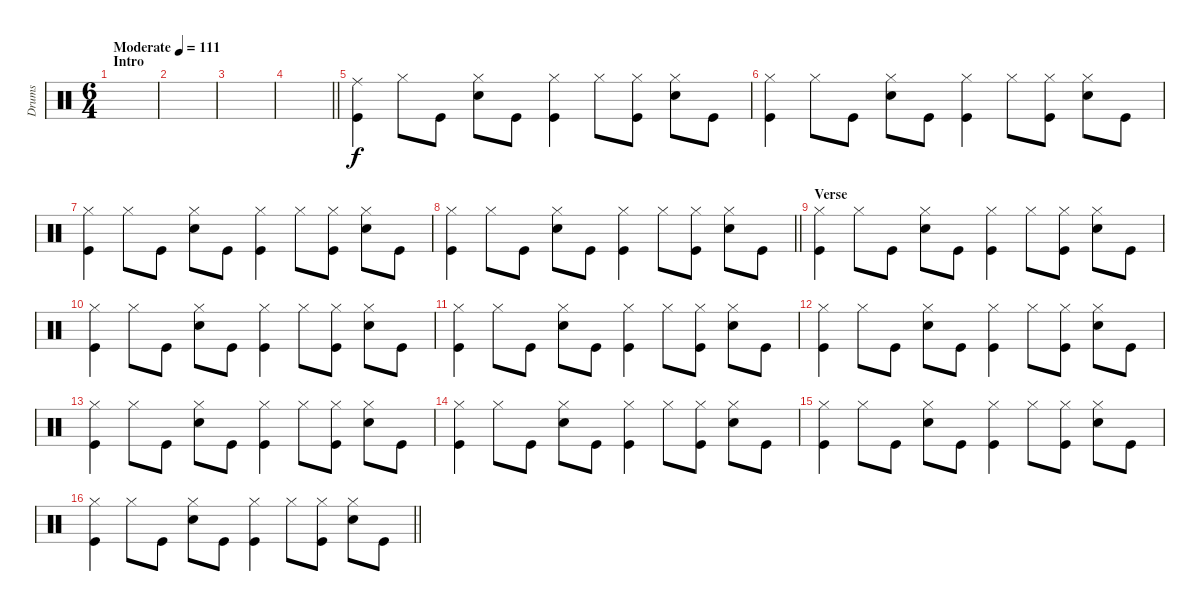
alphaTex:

\track ("Drums" "Drums") {instrument percussion}
\staff {score}
\articulation defaults
\ts (6 4)
\section ("" "Intro")
\tempo (111 "Moderate")
\clef neutral
\ks c
|
|
|
\barLineRight lightlight
|
("Ride (middle)" "Kick (hit)").4 "Hi-Hat (closed)".8 "Kick (hit)".8 ("Hi-Hat (closed)" "Snare (hit) 2").8 "Kick (hit)".8 ("Hi-Hat (closed)" "Kick (hit)").4 "Hi-Hat (closed)".8 ("Hi-Hat (closed)" "Kick (hit)").8 ("Hi-Hat (closed)" "Electric Snare (hit)").8 "Kick (hit)".8 |
("Hi-Hat (closed)" "Kick (hit)").4 "Hi-Hat (closed)".8 "Kick (hit)".8 ("Hi-Hat (closed)" "Snare (hit) 2").8 "Kick (hit)".8 ("Hi-Hat (closed)" "Kick (hit)").4 "Hi-Hat (closed)".8 ("Hi-Hat (closed)" "Kick (hit)").8 ("Hi-Hat (closed)" "Electric Snare (hit)").8 "Kick (hit)".8 |
("Hi-Hat (closed)" "Kick (hit)").4 "Hi-Hat (closed)".8 "Kick (hit)".8 ("Hi-Hat (closed)" "Snare (hit) 2").8 "Kick (hit)".8 ("Hi-Hat (closed)" "Kick (hit)").4 "Hi-Hat (closed)".8 ("Hi-Hat (closed)" "Kick (hit)").8 ("Hi-Hat (closed)" "Electric Snare (hit)").8 "Kick (hit)".8 |
\barLineRight lightlight
("Hi-Hat (closed)" "Kick (hit)").4 "Hi-Hat (closed)".8 "Kick (hit)".8 ("Hi-Hat (closed)" "Snare (hit) 2").8 "Kick (hit)".8 ("Hi-Hat (closed)" "Kick (hit)").4 "Hi-Hat (closed)".8 ("Hi-Hat (closed)" "Kick (hit)").8 ("Hi-Hat (closed)" "Electric Snare (hit)").8 "Kick (hit)".8 |
\section ("" "Verse")
("Hi-Hat (closed)" "Kick (hit)").4 "Hi-Hat (closed)".8 "Kick (hit)".8 ("Hi-Hat (closed)" "Snare (hit) 2").8 "Kick (hit)".8 ("Hi-Hat (closed)" "Kick (hit)").4 "Hi-Hat (closed)".8 ("Hi-Hat (closed)" "Kick (hit)").8 ("Hi-Hat (closed)" "Electric Snare (hit)").8 "Kick (hit)".8 |
("Hi-Hat (closed)" "Kick (hit)").4 "Hi-Hat (closed)".8 "Kick (hit)".8 ("Hi-Hat (closed)" "Snare (hit) 2").8 "Kick (hit)".8 ("Hi-Hat (closed)" "Kick (hit)").4 "Hi-Hat (closed)".8 ("Hi-Hat (closed)" "Kick (hit)").8 ("Hi-Hat (closed)" "Electric Snare (hit)").8 "Kick (hit)".8 |
("Hi-Hat (closed)" "Kick (hit)").4 "Hi-Hat (closed)".8 "Kick (hit)".8 ("Hi-Hat (closed)" "Snare (hit) 2").8 "Kick (hit)".8 ("Hi-Hat (closed)" "Kick (hit)").4 "Hi-Hat (closed)".8 ("Hi-Hat (closed)" "Kick (hit)").8 ("Hi-Hat (closed)" "Electric Snare (hit)").8 "Kick (hit)".8 |
("Hi-Hat (closed)" "Kick (hit)").4 "Hi-Hat (closed)".8 "Kick (hit)".8 ("Hi-Hat (closed)" "Snare (hit) 2").8 "Kick (hit)".8 ("Hi-Hat (closed)" "Kick (hit)").4 "Hi-Hat (closed)".8 ("Hi-Hat (closed)" "Kick (hit)").8 ("Hi-Hat (closed)" "Electric Snare (hit)").8 "Kick (hit)".8 |
("Hi-Hat (closed)" "Kick (hit)").4 "Hi-Hat (closed)".8 "Kick (hit)".8 ("Hi-Hat (closed)" "Snare (hit) 2").8 "Kick (hit)".8 ("Hi-Hat (closed)" "Kick (hit)").4 "Hi-Hat (closed)".8 ("Hi-Hat (closed)" "Kick (hit)").8 ("Hi-Hat (closed)" "Electric Snare (hit)").8 "Kick (hit)".8 |
("Hi-Hat (closed)" "Kick (hit)").4 "Hi-Hat (closed)".8 "Kick (hit)".8 ("Hi-Hat (closed)" "Snare (hit) 2").8 "Kick (hit)".8 ("Hi-Hat (closed)" "Kick (hit)").4 "Hi-Hat (closed)".8 ("Hi-Hat (closed)" "Kick (hit)").8 ("Hi-Hat (closed)" "Electric Snare (hit)").8 "Kick (hit)".8 |
("Hi-Hat (closed)" "Kick (hit)").4 "Hi-Hat (closed)".8 "Kick (hit)".8 ("Hi-Hat (closed)" "Snare (hit) 2").8 "Kick (hit)".8 ("Hi-Hat (closed)" "Kick (hit)").4 "Hi-Hat (closed)".8 ("Hi-Hat (closed)" "Kick (hit)").8 ("Hi-Hat (closed)" "Electric Snare (hit)").8 "Kick (hit)".8 |
\barLineRight lightlight
("Hi-Hat (closed)" "Kick (hit)").4 "Hi-Hat (closed)".8 "Kick (hit)".8 ("Hi-Hat (closed)" "Snare (hit) 2").8 "Kick (hit)".8 ("Hi-Hat (closed)" "Kick (hit)").4 "Hi-Hat (closed)".8 ("Hi-Hat (closed)" "Kick (hit)").8 ("Hi-Hat (closed)" "Electric Snare (hit)").8 "Kick (hit)".8
